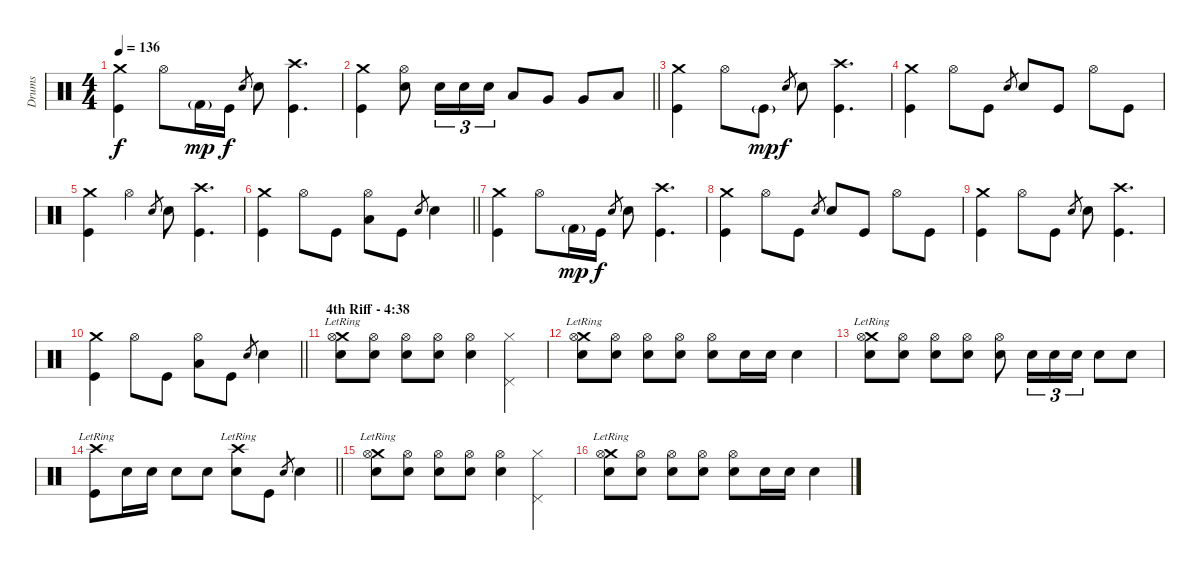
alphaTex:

\track ("Drums" "Drums") {instrument percussion}
\staff {score}
\articulation defaults
\ts (4 4)
\tempo 136
\clef neutral
\ks c
("Crash medium (hit)" "Kick (hit)").4{dy f} "Hi-Hat (open)".8 "Kick (hit) 2"{g}.16{dy mp} "Kick (hit)".16{dy f} "Snare (hit) 2".8{gr} "Snare (hit) 2".8 ("Crash high (hit)" "Kick (hit)").4{d} |
\barLineRight lightlight
("Crash medium (hit)" "Kick (hit)").4 ("Hi-Hat (open)" "Snare (hit) 2").8 "Snare (hit) 2".16{tu (3 2)} "Snare (hit) 2".16{tu (3 2)} "Snare (hit) 2".16{tu (3 2)} "Low Tom (hit)".8 "Very Low Tom (hit)".8 "Very Low Tom (hit)".8 "Low Floor Tom (hit)".8 |
("Crash medium (hit)" "Kick (hit)").4 "Hi-Hat (open)".8 "Kick (hit)"{g}.8{dy mp} "Snare (hit) 2".8{gr dy f} "Snare (hit) 2".8 ("Crash high (hit)" "Kick (hit)").4{d} |
("Crash medium (hit)" "Kick (hit)").4 "Hi-Hat (open)".8 "Kick (hit)".8 "Snare (hit) 2".8{gr} "Snare (hit) 2".8 "Kick (hit)".8 "Hi-Hat (open)".8 "Kick (hit)".8 |
("Crash medium (hit)" "Kick (hit)").4 "Hi-Hat (open)".4 "Snare (hit) 2".8{gr} "Snare (hit) 2".8 ("Crash high (hit)" "Kick (hit)").4{d} |
\barLineRight lightlight
("Crash medium (hit)" "Kick (hit)").4 "Hi-Hat (open)".8 "Kick (hit)".8 ("Hi-Hat (open)" "Low Tom (hit)").8 "Kick (hit)".8 "Snare (hit) 2".8{gr} "Snare (hit) 2".4 |
("Crash medium (hit)" "Kick (hit)").4 "Hi-Hat (open)".8 "Kick (hit) 2"{g}.16{dy mp} "Kick (hit)".16{dy f} "Snare (hit) 2".8{gr} "Snare (hit) 2".8 ("Crash high (hit)" "Kick (hit)").4{d} |
("Crash medium (hit)" "Kick (hit)").4 "Hi-Hat (open)".8 "Kick (hit)".8 "Snare (hit) 2".8{gr} "Snare (hit) 2".8 "Kick (hit)".8 "Hi-Hat (open)".8 "Kick (hit)".8 |
("Crash medium (hit)" "Kick (hit)").4 "Hi-Hat (open)".8 "Kick (hit)".8 "Snare (hit) 2".8{gr} "Snare (hit) 2".8 ("Crash high (hit)" "Kick (hit)").4{d} |
\barLineRight lightlight
("Crash medium (hit)" "Kick (hit)").4 "Hi-Hat (open)".8 "Kick (hit)".8 ("Hi-Hat (open)" "Low Tom (hit)").8 "Kick (hit)".8 "Snare (hit) 2".8{gr} "Snare (hit) 2".4 |
\section ("" "4th Riff - 4:38")
("Crash medium (hit)"{lr} "Hi-Hat (open)" "Snare (hit) 2").8 ("Hi-Hat (open)" "Snare (hit) 2").8 ("Hi-Hat (open)" "Snare (hit) 2").8 ("Hi-Hat (open)" "Snare (hit) 2").8 ("Hi-Hat (open)" "Snare (hit) 2").4 ("Pedal Hi-Hat (hit)" "Hi-Hat (closed)").4 |
("Crash medium (hit)"{lr} "Hi-Hat (open)" "Snare (hit) 2").8 ("Hi-Hat (open)" "Snare (hit) 2").8 ("Hi-Hat (open)" "Snare (hit) 2").8 ("Hi-Hat (open)" "Snare (hit) 2").8 ("Hi-Hat (open)" "Snare (hit) 2").8 "Snare (hit) 2".16 "Snare (hit) 2".16 "Snare (hit) 2".4 |
("Crash medium (hit)"{lr} "Hi-Hat (open)" "Snare (hit) 2").8 ("Hi-Hat (open)" "Snare (hit) 2").8 ("Hi-Hat (open)" "Snare (hit) 2").8 ("Hi-Hat (open)" "Snare (hit) 2").8 ("Hi-Hat (open)" "Snare (hit) 2").8 "Snare (hit) 2".16{tu (3 2)} "Snare (hit) 2".16{tu (3 2)} "Snare (hit) 2".16{tu (3 2)} "Snare (hit) 2".8 "Snare (hit) 2".8 |
\barLineRight lightlight
("Crash high (hit)"{lr} "Kick (hit)").8 "Snare (hit) 2".16 "Snare (hit) 2".16 "Snare (hit) 2".8 "Snare (hit) 2".8 ("Crash high (hit)"{lr} "Snare (hit) 2").8 "Kick (hit)".8 "Snare (hit) 2".8{gr} "Snare (hit) 2".4 |
("Crash medium (hit)"{lr} "Hi-Hat (open)" "Snare (hit) 2").8 ("Hi-Hat (open)" "Snare (hit) 2").8 ("Hi-Hat (open)" "Snare (hit) 2").8 ("Hi-Hat (open)" "Snare (hit) 2").8 ("Hi-Hat (open)" "Snare (hit) 2").4 ("Pedal Hi-Hat (hit)" "Hi-Hat (closed)").4 |
("Crash medium (hit)"{lr} "Hi-Hat (open)" "Snare (hit) 2").8 ("Hi-Hat (open)" "Snare (hit) 2").8 ("Hi-Hat (open)" "Snare (hit) 2").8 ("Hi-Hat (open)" "Snare (hit) 2").8 ("Hi-Hat (open)" "Snare (hit) 2").8 "Snare (hit) 2".16 "Snare (hit) 2".16 "Snare (hit) 2".4
